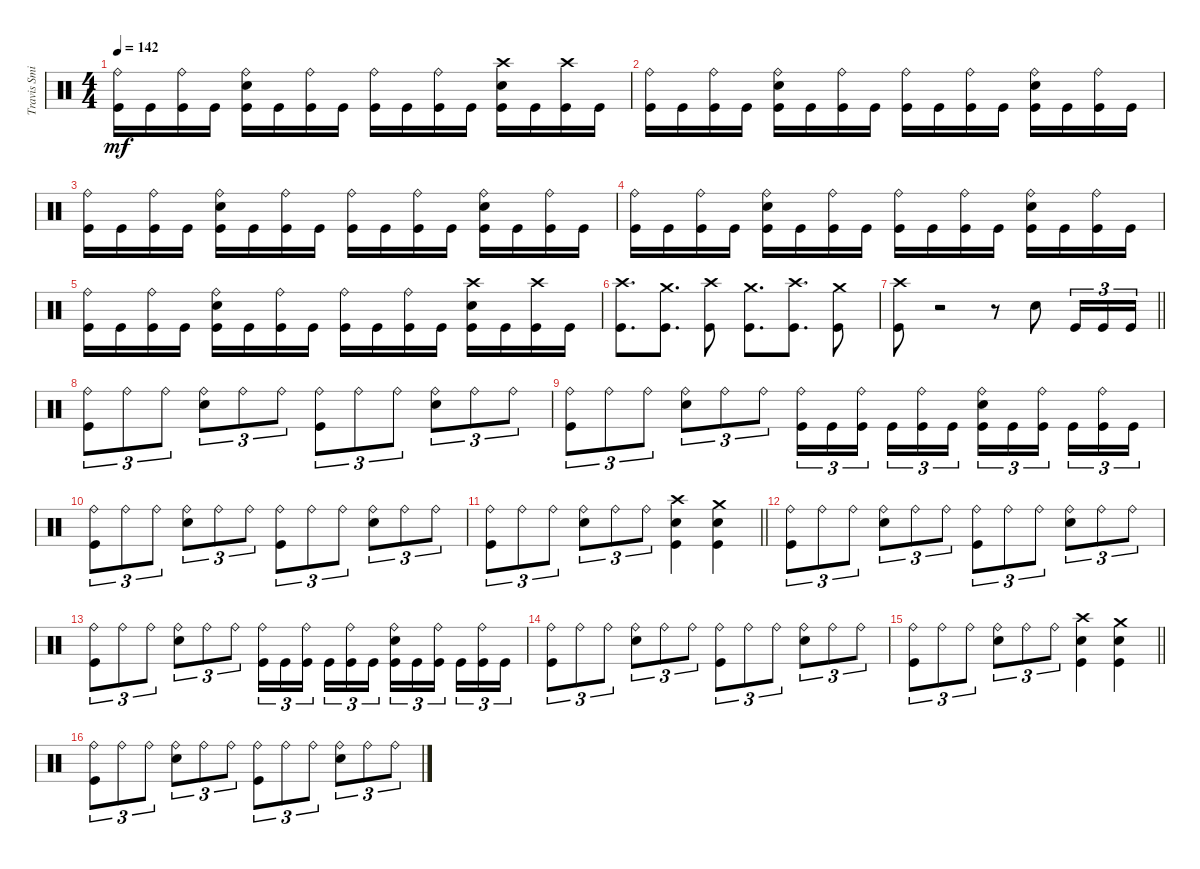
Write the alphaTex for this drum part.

\track ("Travis Smith" "Travis Smi") {instrument percussion}
\staff {score}
\articulation defaults
\ts (4 4)
\tempo 142
\clef neutral
\ks c
("Ride (bell)" "Kick (hit)").16{dy mf} "Kick (hit)".16 ("Ride (bell)" "Kick (hit)").16 "Kick (hit)".16 ("Ride (bell)" "Snare (hit) 2" "Kick (hit)").16 "Kick (hit)".16 ("Ride (bell)" "Kick (hit)").16 "Kick (hit)".16 ("Ride (bell)" "Kick (hit)").16 "Kick (hit)".16 ("Ride (bell)" "Kick (hit)").16 "Kick (hit)".16 ("Crash high (hit)" "Snare (hit) 2" "Kick (hit)").16 "Kick (hit)".16 ("Crash high (hit)" "Kick (hit)").16 "Kick (hit)".16 |
("Ride (bell)" "Kick (hit)").16 "Kick (hit)".16 ("Ride (bell)" "Kick (hit)").16 "Kick (hit)".16 ("Ride (bell)" "Snare (hit) 2" "Kick (hit)").16 "Kick (hit)".16 ("Ride (bell)" "Kick (hit)").16 "Kick (hit)".16 ("Ride (bell)" "Kick (hit)").16 "Kick (hit)".16 ("Ride (bell)" "Kick (hit)").16 "Kick (hit)".16 ("Ride (bell)" "Snare (hit) 2" "Kick (hit)").16 "Kick (hit)".16 ("Ride (bell)" "Kick (hit)").16 "Kick (hit)".16 |
("Ride (bell)" "Kick (hit)").16 "Kick (hit)".16 ("Ride (bell)" "Kick (hit)").16 "Kick (hit)".16 ("Ride (bell)" "Snare (hit) 2" "Kick (hit)").16 "Kick (hit)".16 ("Ride (bell)" "Kick (hit)").16 "Kick (hit)".16 ("Ride (bell)" "Kick (hit)").16 "Kick (hit)".16 ("Ride (bell)" "Kick (hit)").16 "Kick (hit)".16 ("Ride (bell)" "Snare (hit) 2" "Kick (hit)").16 "Kick (hit)".16 ("Ride (bell)" "Kick (hit)").16 "Kick (hit)".16 |
("Ride (bell)" "Kick (hit)").16 "Kick (hit)".16 ("Ride (bell)" "Kick (hit)").16 "Kick (hit)".16 ("Ride (bell)" "Snare (hit) 2" "Kick (hit)").16 "Kick (hit)".16 ("Ride (bell)" "Kick (hit)").16 "Kick (hit)".16 ("Ride (bell)" "Kick (hit)").16 "Kick (hit)".16 ("Ride (bell)" "Kick (hit)").16 "Kick (hit)".16 ("Ride (bell)" "Snare (hit) 2" "Kick (hit)").16 "Kick (hit)".16 ("Ride (bell)" "Kick (hit)").16 "Kick (hit)".16 |
("Ride (bell)" "Kick (hit)").16 "Kick (hit)".16 ("Ride (bell)" "Kick (hit)").16 "Kick (hit)".16 ("Ride (bell)" "Snare (hit) 2" "Kick (hit)").16 "Kick (hit)".16 ("Ride (bell)" "Kick (hit)").16 "Kick (hit)".16 ("Ride (bell)" "Kick (hit)").16 "Kick (hit)".16 ("Ride (bell)" "Kick (hit)").16 "Kick (hit)".16 ("Crash high (hit)" "Snare (hit) 2" "Kick (hit)").16 "Kick (hit)".16 ("Crash high (hit)" "Kick (hit)").16 "Kick (hit)".16 |
("Kick (hit)" "Crash high (hit)").8{d} ("Kick (hit)" "Crash medium (hit)").8{d} ("Kick (hit)" "Crash high (hit)").8 ("Kick (hit)" "Crash medium (hit)").8{d} ("Kick (hit)" "Crash high (hit)").8{d} ("Kick (hit)" "Crash medium (hit)").8 |
\barLineRight lightlight
("Crash high (hit)" "Kick (hit)").8 r.2 r.8 "Snare (hit) 2".8 "Kick (hit)".16{tu (3 2)} "Kick (hit)".16{tu (3 2)} "Kick (hit)".16{tu (3 2)} |
\section ("" "")
("Ride (bell)" "Kick (hit)").8{tu (3 2)} "Ride (bell)".8{tu (3 2)} "Ride (bell)".8{tu (3 2)} ("Ride (bell)" "Snare (hit) 2").8{tu (3 2)} "Ride (bell)".8{tu (3 2)} "Ride (bell)".8{tu (3 2)} ("Ride (bell)" "Kick (hit)").8{tu (3 2)} "Ride (bell)".8{tu (3 2)} "Ride (bell)".8{tu (3 2)} ("Ride (bell)" "Snare (hit) 2").8{tu (3 2)} "Ride (bell)".8{tu (3 2)} "Ride (bell)".8{tu (3 2)} |
("Ride (bell)" "Kick (hit)").8{tu (3 2)} "Ride (bell)".8{tu (3 2)} "Ride (bell)".8{tu (3 2)} ("Ride (bell)" "Snare (hit) 2").8{tu (3 2)} "Ride (bell)".8{tu (3 2)} "Ride (bell)".8{tu (3 2)} ("Ride (bell)" "Kick (hit)").16{tu (3 2)} "Kick (hit)".16{tu (3 2)} ("Ride (bell)" "Kick (hit)").16{tu (3 2)} "Kick (hit)".16{tu (3 2)} ("Ride (bell)" "Kick (hit)").16{tu (3 2)} "Kick (hit)".16{tu (3 2)} ("Ride (bell)" "Snare (hit) 2" "Kick (hit)").16{tu (3 2)} "Kick (hit)".16{tu (3 2)} ("Ride (bell)" "Kick (hit)").16{tu (3 2)} "Kick (hit)".16{tu (3 2)} ("Ride (bell)" "Kick (hit)").16{tu (3 2)} "Kick (hit)".16{tu (3 2)} |
("Ride (bell)" "Kick (hit)").8{tu (3 2)} "Ride (bell)".8{tu (3 2)} "Ride (bell)".8{tu (3 2)} ("Ride (bell)" "Snare (hit) 2").8{tu (3 2)} "Ride (bell)".8{tu (3 2)} "Ride (bell)".8{tu (3 2)} ("Ride (bell)" "Kick (hit)").8{tu (3 2)} "Ride (bell)".8{tu (3 2)} "Ride (bell)".8{tu (3 2)} ("Ride (bell)" "Snare (hit) 2").8{tu (3 2)} "Ride (bell)".8{tu (3 2)} "Ride (bell)".8{tu (3 2)} |
\barLineRight lightlight
("Ride (bell)" "Kick (hit)").8{tu (3 2)} "Ride (bell)".8{tu (3 2)} "Ride (bell)".8{tu (3 2)} ("Ride (bell)" "Snare (hit) 2").8{tu (3 2)} "Ride (bell)".8{tu (3 2)} "Ride (bell)".8{tu (3 2)} ("Crash high (hit)" "Snare (hit) 2" "Kick (hit)").4 ("Crash medium (hit)" "Snare (hit) 2" "Kick (hit)").4 |
("Ride (bell)" "Kick (hit)").8{tu (3 2)} "Ride (bell)".8{tu (3 2)} "Ride (bell)".8{tu (3 2)} ("Ride (bell)" "Snare (hit) 2").8{tu (3 2)} "Ride (bell)".8{tu (3 2)} "Ride (bell)".8{tu (3 2)} ("Ride (bell)" "Kick (hit)").8{tu (3 2)} "Ride (bell)".8{tu (3 2)} "Ride (bell)".8{tu (3 2)} ("Ride (bell)" "Snare (hit) 2").8{tu (3 2)} "Ride (bell)".8{tu (3 2)} "Ride (bell)".8{tu (3 2)} |
("Ride (bell)" "Kick (hit)").8{tu (3 2)} "Ride (bell)".8{tu (3 2)} "Ride (bell)".8{tu (3 2)} ("Ride (bell)" "Snare (hit) 2").8{tu (3 2)} "Ride (bell)".8{tu (3 2)} "Ride (bell)".8{tu (3 2)} ("Ride (bell)" "Kick (hit)").16{tu (3 2)} "Kick (hit)".16{tu (3 2)} ("Ride (bell)" "Kick (hit)").16{tu (3 2)} "Kick (hit)".16{tu (3 2)} ("Ride (bell)" "Kick (hit)").16{tu (3 2)} "Kick (hit)".16{tu (3 2)} ("Ride (bell)" "Snare (hit) 2" "Kick (hit)").16{tu (3 2)} "Kick (hit)".16{tu (3 2)} ("Ride (bell)" "Kick (hit)").16{tu (3 2)} "Kick (hit)".16{tu (3 2)} ("Ride (bell)" "Kick (hit)").16{tu (3 2)} "Kick (hit)".16{tu (3 2)} |
("Ride (bell)" "Kick (hit)").8{tu (3 2)} "Ride (bell)".8{tu (3 2)} "Ride (bell)".8{tu (3 2)} ("Ride (bell)" "Snare (hit) 2").8{tu (3 2)} "Ride (bell)".8{tu (3 2)} "Ride (bell)".8{tu (3 2)} ("Ride (bell)" "Kick (hit)").8{tu (3 2)} "Ride (bell)".8{tu (3 2)} "Ride (bell)".8{tu (3 2)} ("Ride (bell)" "Snare (hit) 2").8{tu (3 2)} "Ride (bell)".8{tu (3 2)} "Ride (bell)".8{tu (3 2)} |
\barLineRight lightlight
("Ride (bell)" "Kick (hit)").8{tu (3 2)} "Ride (bell)".8{tu (3 2)} "Ride (bell)".8{tu (3 2)} ("Ride (bell)" "Snare (hit) 2").8{tu (3 2)} "Ride (bell)".8{tu (3 2)} "Ride (bell)".8{tu (3 2)} ("Crash high (hit)" "Snare (hit) 2" "Kick (hit)").4 ("Crash medium (hit)" "Snare (hit) 2" "Kick (hit)").4 |
\section ("" "")
("Ride (bell)" "Kick (hit)").8{tu (3 2)} "Ride (bell)".8{tu (3 2)} "Ride (bell)".8{tu (3 2)} ("Ride (bell)" "Snare (hit) 2").8{tu (3 2)} "Ride (bell)".8{tu (3 2)} "Ride (bell)".8{tu (3 2)} ("Ride (bell)" "Kick (hit)").8{tu (3 2)} "Ride (bell)".8{tu (3 2)} "Ride (bell)".8{tu (3 2)} ("Ride (bell)" "Snare (hit) 2").8{tu (3 2)} "Ride (bell)".8{tu (3 2)} "Ride (bell)".8{tu (3 2)}
